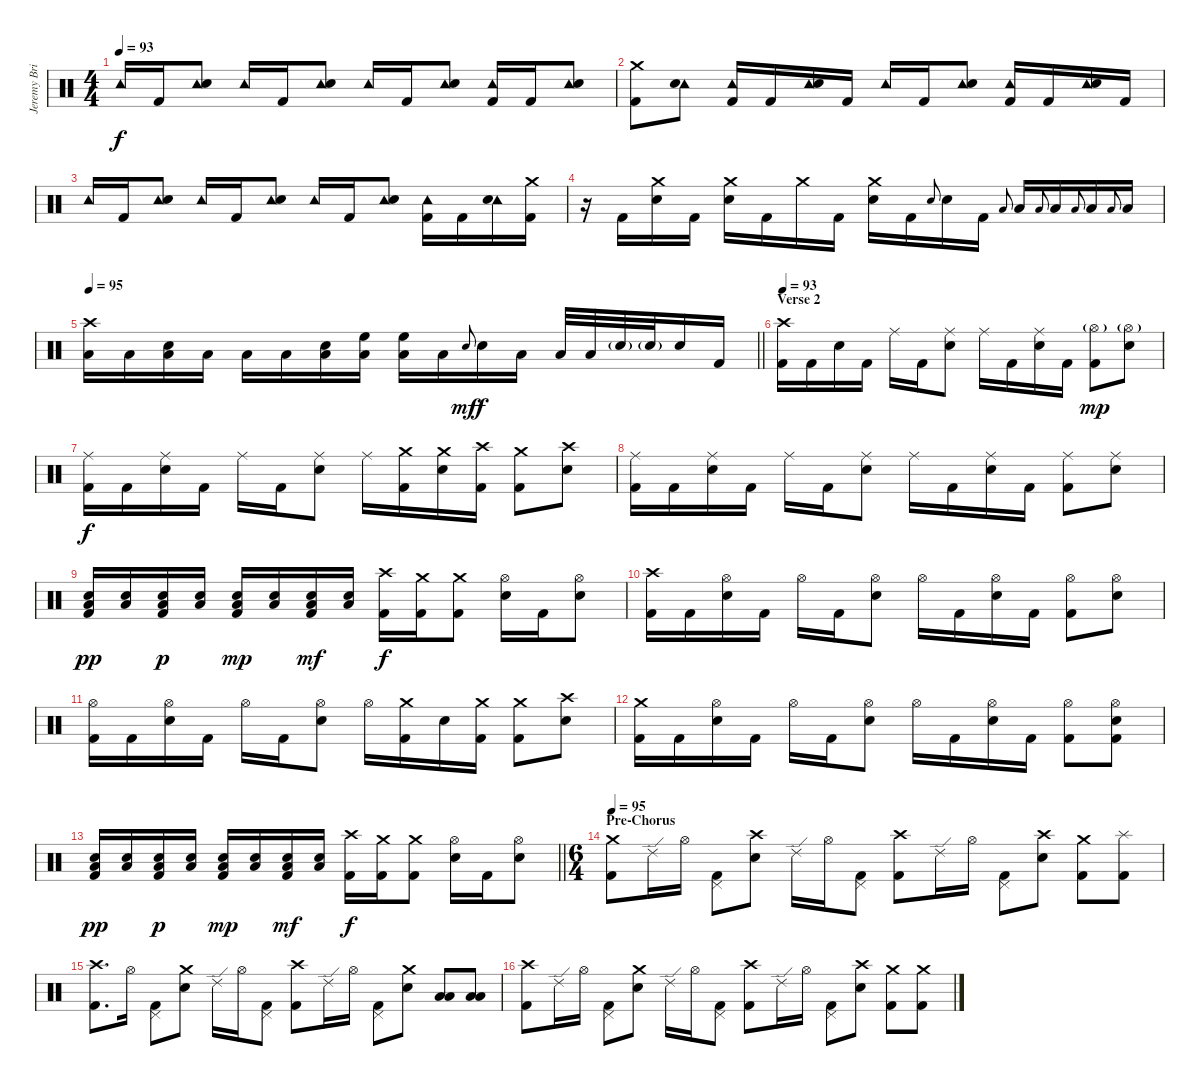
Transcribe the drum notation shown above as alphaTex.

\track ("Jeremy Brian [Drums]" "Jeremy Bri") {instrument percussion}
\staff {score}
\articulation defaults
\ts (4 4)
\tempo 93
\clef neutral
\ks c "Tambourine (hit)".16{dy f} "Kick (hit) 2".16
("Tambourine (hit)" "Electric Snare (hit)").8 "Tambourine (hit)".16 "Kick (hit) 2".16 ("Tambourine (hit)" "Electric Snare (hit)").8 "Tambourine (hit)".16 "Kick (hit) 2".16 ("Tambourine (hit)" "Electric Snare (hit)").8 ("Tambourine (hit)" "Kick (hit) 2").16 "Kick (hit) 2".16 ("Tambourine (hit)" "Electric Snare (hit)").8 |
("Crash medium (hit)" "Kick (hit) 2").8 ("Tambourine (hit)" "Electric Snare (hit)").8 ("Tambourine (hit)" "Kick (hit) 2").16 "Kick (hit) 2".16 ("Tambourine (hit)" "Electric Snare (hit)").16 "Kick (hit) 2".16 "Tambourine (hit)".16 "Kick (hit) 2".16 ("Tambourine (hit)" "Electric Snare (hit)").8 ("Tambourine (hit)" "Kick (hit) 2").16 "Kick (hit) 2".16 ("Tambourine (hit)" "Electric Snare (hit)").16 "Kick (hit) 2".16 |
"Tambourine (hit)".16 "Kick (hit) 2".16 ("Tambourine (hit)" "Electric Snare (hit)").8 "Tambourine (hit)".16 "Kick (hit) 2".16 ("Tambourine (hit)" "Electric Snare (hit)").8 "Tambourine (hit)".16 "Kick (hit) 2".16 ("Tambourine (hit)" "Electric Snare (hit)").8 ("Tambourine (hit)" "Kick (hit) 2").16 "Kick (hit) 2".16 ("Tambourine (hit)" "Electric Snare (hit)").16 ("Crash medium (hit)" "Kick (hit) 2").16 |
r.16 "Kick (hit) 2".16 ("Crash medium (hit)" "Electric Snare (hit)").16 "Kick (hit) 2".16 ("Crash medium (hit)" "Electric Snare (hit)").16 "Kick (hit) 2".16 "Crash medium (hit)".16 "Kick (hit) 2".16 ("Crash medium (hit)" "Electric Snare (hit)").16 "Kick (hit) 2".16 "Electric Snare (hit)".8{gr onbeat} "Electric Snare (hit)".16 "Kick (hit) 2".16 "Low Tom (hit)".8{gr onbeat} "Low Tom (hit)".16{balance 0} "Low Tom (hit)".8{gr onbeat} "Low Tom (hit)".16 "Low Floor Tom (hit)".8{gr onbeat} "Low Floor Tom (hit)".16{balance 16} "Low Floor Tom (hit)".8{gr onbeat} "Low Floor Tom (hit)".16 |
\tempo 95
\barLineRight lightlight
("Crash high (hit)" "Low Floor Tom (hit)").16{balance 8} "Low Floor Tom (hit)".16 ("Low Floor Tom (hit)" "Electric Snare (hit)").16 "Low Floor Tom (hit)".16 "Low Tom (hit)".16{balance 16} "Low Floor Tom (hit)".16{balance 8} ("Low Floor Tom (hit)" "Electric Snare (hit)").16 ("Low Floor Tom (hit)" "High Floor Tom (hit)").16 ("Low Floor Tom (hit)" "High Floor Tom (hit)").16 "Low Floor Tom (hit)".16 "Electric Snare (hit)".8{gr onbeat dy mf} "Electric Snare (hit)".16{dy f} "Low Floor Tom (hit)".16 "Low Tom (hit)".32 "Low Tom (hit)".32 "Electric Snare (hit)"{g}.32 "Electric Snare (hit)"{g}.32 "Electric Snare (hit)".16 "Kick (hit) 2".16 |
\section ("" "Verse 2")
\tempo 93
("Crash high (hit)" "Kick (hit) 2").16 "Kick (hit) 2".16 "Electric Snare (hit)".16 "Kick (hit) 2".16 "Ride (middle)".16 "Kick (hit) 2".16 ("Ride (middle)" "Electric Snare (hit)").8 "Ride (middle)".16 "Kick (hit) 2".16 ("Ride (middle)" "Electric Snare (hit)").16 "Kick (hit) 2".16 ("Hi-Hat (open)"{g} "Kick (hit) 2").8{dy mp} ("Hi-Hat (open)"{g} "Electric Snare (hit)").8 |
("Ride (middle)" "Kick (hit) 2").16{dy f} "Kick (hit) 2".16 ("Ride (middle)" "Electric Snare (hit)").16 "Kick (hit) 2".16 "Ride (middle)".16 "Kick (hit) 2".16 ("Ride (middle)" "Electric Snare (hit)").8 "Ride (middle)".16 ("Crash medium (hit)" "Kick (hit) 2").16 ("Crash medium (hit)" "Electric Snare (hit)").16 ("Crash high (hit)" "Kick (hit) 2").16 ("Crash medium (hit)" "Kick (hit) 2").8 ("Crash high (hit)" "Electric Snare (hit)").8 |
("Ride (middle)" "Kick (hit) 2").16 "Kick (hit) 2".16 ("Ride (middle)" "Electric Snare (hit)").16 "Kick (hit) 2".16 "Ride (middle)".16 "Kick (hit) 2".16 ("Ride (middle)" "Electric Snare (hit)").8 "Ride (middle)".16 "Kick (hit) 2".16 ("Ride (middle)" "Electric Snare (hit)").16 "Kick (hit) 2".16 ("Ride (middle)" "Kick (hit) 2").8 ("Ride (middle)" "Electric Snare (hit)").8 |
("Low Floor Tom (hit)" "Electric Snare (hit)" "Kick (hit) 2").16{dy pp} ("Low Floor Tom (hit)" "Electric Snare (hit)").16 ("Low Floor Tom (hit)" "Electric Snare (hit)" "Kick (hit) 2").16{dy p} ("Low Floor Tom (hit)" "Electric Snare (hit)").16 ("Low Floor Tom (hit)" "Electric Snare (hit)" "Kick (hit) 2").16{dy mp} ("Low Floor Tom (hit)" "Electric Snare (hit)").16 ("Low Floor Tom (hit)" "Electric Snare (hit)" "Kick (hit) 2").16{dy mf} ("Low Floor Tom (hit)" "Electric Snare (hit)").16 ("Crash high (hit)" "Kick (hit) 2").16{dy f} ("Crash medium (hit)" "Kick (hit) 2").16 ("Crash medium (hit)" "Kick (hit) 2").8 ("Hi-Hat (open)" "Electric Snare (hit)").16 "Kick (hit) 2".16 ("Hi-Hat (open)" "Electric Snare (hit)").8 |
("Crash high (hit)" "Kick (hit) 2").16 "Kick (hit) 2".16 ("Hi-Hat (open)" "Electric Snare (hit)").16 "Kick (hit) 2".16 "Hi-Hat (open)".16 "Kick (hit) 2".16 ("Hi-Hat (open)" "Electric Snare (hit)").8 "Hi-Hat (open)".16 "Kick (hit) 2".16 ("Hi-Hat (open)" "Electric Snare (hit)").16 "Kick (hit) 2".16 ("Hi-Hat (open)" "Kick (hit) 2").8 ("Hi-Hat (open)" "Electric Snare (hit)").8 |
("Hi-Hat (open)" "Kick (hit) 2").16 "Kick (hit) 2".16 ("Hi-Hat (open)" "Electric Snare (hit)").16 "Kick (hit) 2".16 "Hi-Hat (open)".16 "Kick (hit) 2".16 ("Hi-Hat (open)" "Electric Snare (hit)").8 "Hi-Hat (open)".16 ("Crash medium (hit)" "Kick (hit) 2").16 "Electric Snare (hit)".16 ("Crash medium (hit)" "Kick (hit) 2").16 ("Crash medium (hit)" "Kick (hit) 2").8 ("Crash high (hit)" "Electric Snare (hit)").8 |
("Crash medium (hit)" "Kick (hit) 2").16 "Kick (hit) 2".16 ("Hi-Hat (open)" "Electric Snare (hit)").16 "Kick (hit) 2".16 "Hi-Hat (open)".16 "Kick (hit) 2".16 ("Hi-Hat (open)" "Electric Snare (hit)").8 "Hi-Hat (open)".16 "Kick (hit) 2".16 ("Hi-Hat (open)" "Electric Snare (hit)").16 "Kick (hit) 2".16 ("Hi-Hat (open)" "Kick (hit) 2").8 ("Hi-Hat (open)" "Electric Snare (hit)" "Kick (hit) 2").8 |
\barLineRight lightlight
("Low Floor Tom (hit)" "Electric Snare (hit)" "Kick (hit) 2").16{dy pp} ("Low Floor Tom (hit)" "Electric Snare (hit)").16 ("Low Floor Tom (hit)" "Electric Snare (hit)" "Kick (hit) 2").16{dy p} ("Low Floor Tom (hit)" "Electric Snare (hit)").16 ("Low Floor Tom (hit)" "Electric Snare (hit)" "Kick (hit) 2").16{dy mp} ("Low Floor Tom (hit)" "Electric Snare (hit)").16 ("Low Floor Tom (hit)" "Electric Snare (hit)" "Kick (hit) 2").16{dy mf} ("Low Floor Tom (hit)" "Electric Snare (hit)").16 ("Crash high (hit)" "Kick (hit) 2").16{dy f} ("Crash medium (hit)" "Kick (hit) 2").16 ("Crash medium (hit)" "Kick (hit) 2").8 ("Hi-Hat (open)" "Electric Snare (hit)").16 "Kick (hit) 2".16 ("Hi-Hat (open)" "Electric Snare (hit)").8 |
\ts (6 4)
\section ("" "Pre-Chorus")
\tempo 95
("Crash medium (hit)" "Kick (hit) 2").8 "Ride (edge) 2".16 "Hi-Hat (open)".16 ("Pedal Hi-Hat (hit)" "Kick (hit) 2").8 ("Crash high (hit)" "Electric Snare (hit)").8 "Ride (edge) 2".16 "Hi-Hat (open)".16 ("Pedal Hi-Hat (hit)" "Kick (hit) 2").8 ("Crash high (hit)" "Kick (hit) 2").8 "Ride (edge) 2".16 "Hi-Hat (open)".16 ("Pedal Hi-Hat (hit)" "Kick (hit) 2").8 ("Crash high (hit)" "Electric Snare (hit)").8 ("Crash medium (hit)" "Kick (hit) 2").8 ("Splash (hit)" "Kick (hit) 2").8 |
("Crash high (hit)" "Kick (hit) 2").8{d} "Hi-Hat (open)".16 ("Pedal Hi-Hat (hit)" "Kick (hit) 2").8 ("Crash medium (hit)" "Electric Snare (hit)").8 "Ride (edge) 2".16 "Hi-Hat (open)".16 ("Pedal Hi-Hat (hit)" "Kick (hit) 2").8 ("Crash high (hit)" "Kick (hit) 2").8 "Ride (edge) 2".16 "Hi-Hat (open)".16 ("Pedal Hi-Hat (hit)" "Kick (hit) 2").8 ("Crash medium (hit)" "Electric Snare (hit)").8 ("Low Floor Tom (hit)" "Low Tom (hit)").8 ("Low Floor Tom (hit)" "Low Tom (hit)").8 |
("Crash high (hit)" "Kick (hit) 2").8 "Ride (edge) 2".16 "Hi-Hat (open)".16 ("Pedal Hi-Hat (hit)" "Kick (hit) 2").8 ("Crash medium (hit)" "Electric Snare (hit)").8 "Ride (edge) 2".16 "Hi-Hat (open)".16 ("Pedal Hi-Hat (hit)" "Kick (hit) 2").8 ("Crash high (hit)" "Kick (hit) 2").8 "Ride (edge) 2".16 "Hi-Hat (open)".16 ("Pedal Hi-Hat (hit)" "Kick (hit) 2").8 ("Crash high (hit)" "Electric Snare (hit)").8 ("Crash medium (hit)" "Kick (hit) 2").8 ("Crash medium (hit)" "Kick (hit) 2").8
